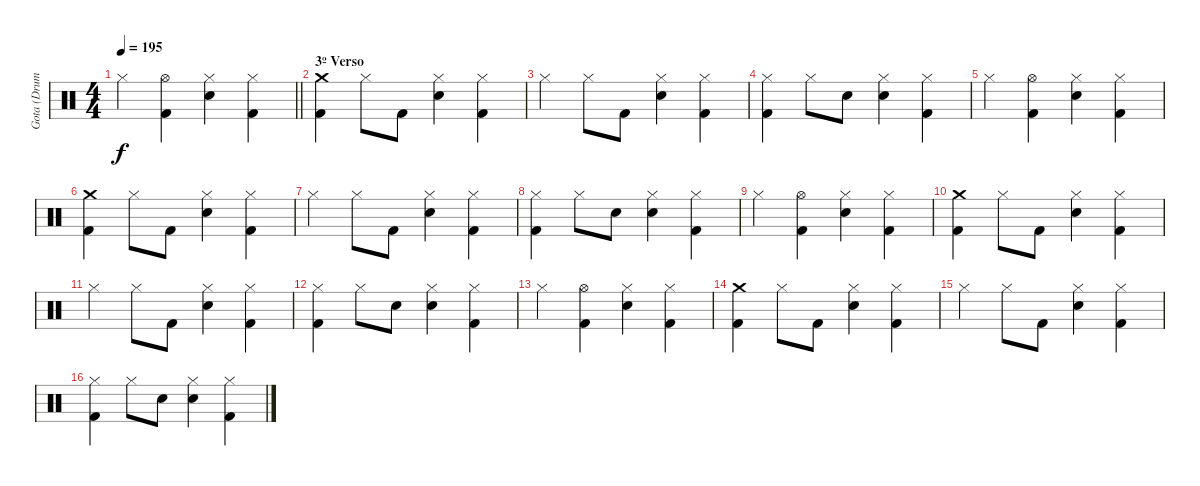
\track ("Gota (Drums)" "Gota (Drum") {instrument percussion}
\staff {score}
\articulation defaults
\ts (4 4)
\tempo 195
\clef neutral
\barLineRight lightlight
\ks c "Hi-Hat (closed)".4{dy f}
("Hi-Hat (open)" "Kick (hit) 2").4 ("Hi-Hat (closed)" "Electric Snare (hit)").4 ("Hi-Hat (closed)" "Kick (hit) 2").4 |
\section ("" "3º Verso")
("Crash medium (hit)" "Kick (hit) 2").4 "Hi-Hat (closed)".8 "Kick (hit) 2".8 ("Hi-Hat (closed)" "Electric Snare (hit)").4 ("Hi-Hat (closed)" "Kick (hit) 2").4 |
"Hi-Hat (closed)".4 "Hi-Hat (closed)".8 "Kick (hit) 2".8 ("Hi-Hat (closed)" "Electric Snare (hit)").4 ("Hi-Hat (closed)" "Kick (hit) 2").4 |
("Hi-Hat (closed)" "Kick (hit) 2").4 "Hi-Hat (closed)".8 "Electric Snare (hit)".8 ("Hi-Hat (closed)" "Electric Snare (hit)").4 ("Hi-Hat (closed)" "Kick (hit) 2").4 |
"Hi-Hat (closed)".4 ("Hi-Hat (open)" "Kick (hit) 2").4 ("Hi-Hat (closed)" "Electric Snare (hit)").4 ("Hi-Hat (closed)" "Kick (hit) 2").4 |
("Crash medium (hit)" "Kick (hit) 2").4 "Hi-Hat (closed)".8 "Kick (hit) 2".8 ("Hi-Hat (closed)" "Electric Snare (hit)").4 ("Hi-Hat (closed)" "Kick (hit) 2").4 |
"Hi-Hat (closed)".4 "Hi-Hat (closed)".8 "Kick (hit) 2".8 ("Hi-Hat (closed)" "Electric Snare (hit)").4 ("Hi-Hat (closed)" "Kick (hit) 2").4 |
("Hi-Hat (closed)" "Kick (hit) 2").4 "Hi-Hat (closed)".8 "Electric Snare (hit)".8 ("Hi-Hat (closed)" "Electric Snare (hit)").4 ("Hi-Hat (closed)" "Kick (hit) 2").4 |
"Hi-Hat (closed)".4 ("Hi-Hat (open)" "Kick (hit) 2").4 ("Hi-Hat (closed)" "Electric Snare (hit)").4 ("Hi-Hat (closed)" "Kick (hit) 2").4 |
("Crash medium (hit)" "Kick (hit) 2").4 "Hi-Hat (closed)".8 "Kick (hit) 2".8 ("Hi-Hat (closed)" "Electric Snare (hit)").4 ("Hi-Hat (closed)" "Kick (hit) 2").4 |
"Hi-Hat (closed)".4 "Hi-Hat (closed)".8 "Kick (hit) 2".8 ("Hi-Hat (closed)" "Electric Snare (hit)").4 ("Hi-Hat (closed)" "Kick (hit) 2").4 |
("Hi-Hat (closed)" "Kick (hit) 2").4 "Hi-Hat (closed)".8 "Electric Snare (hit)".8 ("Hi-Hat (closed)" "Electric Snare (hit)").4 ("Hi-Hat (closed)" "Kick (hit) 2").4 |
"Hi-Hat (closed)".4 ("Hi-Hat (open)" "Kick (hit) 2").4 ("Hi-Hat (closed)" "Electric Snare (hit)").4 ("Hi-Hat (closed)" "Kick (hit) 2").4 |
("Crash medium (hit)" "Kick (hit) 2").4 "Hi-Hat (closed)".8 "Kick (hit) 2".8 ("Hi-Hat (closed)" "Electric Snare (hit)").4 ("Hi-Hat (closed)" "Kick (hit) 2").4 |
"Hi-Hat (closed)".4 "Hi-Hat (closed)".8 "Kick (hit) 2".8 ("Hi-Hat (closed)" "Electric Snare (hit)").4 ("Hi-Hat (closed)" "Kick (hit) 2").4 |
("Hi-Hat (closed)" "Kick (hit) 2").4 "Hi-Hat (closed)".8 "Electric Snare (hit)".8 ("Hi-Hat (closed)" "Electric Snare (hit)").4 ("Hi-Hat (closed)" "Kick (hit) 2").4
